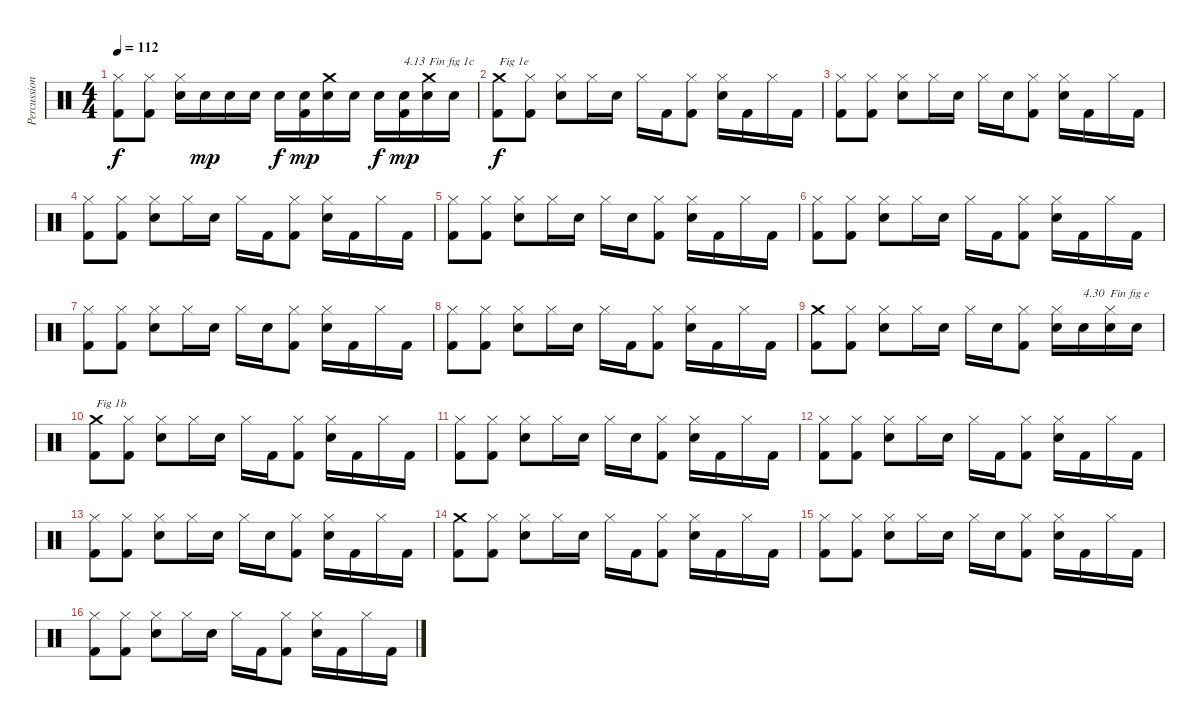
\track ("Percussions" "Percussion") {instrument percussion}
\staff {score}
\articulation defaults
\ts (4 4)
\tempo 112
\clef neutral
\ks c
("Kick (hit) 2" "Hi-Hat (closed)").8{dy f} ("Kick (hit) 2" "Hi-Hat (closed)").8 ("Snare (hit) 2" "Hi-Hat (closed)").16 "Snare (hit) 2".16{dy mp} "Snare (hit) 2".16 "Snare (hit) 2".16 "Snare (hit) 2".16{dy f} ("Kick (hit) 2" "Snare (hit) 2").16{dy mp} ("Snare (hit) 2" "Crash medium (hit)").16 "Snare (hit) 2".16 "Snare (hit) 2".16{dy f} ("Kick (hit) 2" "Snare (hit) 2").16{txt "4.13" dy mp} ("Snare (hit) 2" "Crash medium (hit)").16{txt "Fin fig 1c"} "Snare (hit) 2".16 |
("Kick (hit) 2" "Crash medium (hit)").8{txt "Fig 1e" dy f} ("Kick (hit) 2" "Hi-Hat (closed)").8 ("Snare (hit) 2" "Hi-Hat (closed)").8 "Hi-Hat (closed)".16 "Snare (hit) 2".16 "Hi-Hat (closed)".16 "Kick (hit) 2".16 ("Kick (hit) 2" "Hi-Hat (closed)").8 ("Snare (hit) 2" "Hi-Hat (closed)").16 "Kick (hit) 2".16 "Hi-Hat (closed)".16 "Kick (hit) 2".16 |
("Kick (hit) 2" "Hi-Hat (closed)").8 ("Kick (hit) 2" "Hi-Hat (closed)").8 ("Snare (hit) 2" "Hi-Hat (closed)").8 "Hi-Hat (closed)".16 "Snare (hit) 2".16 "Hi-Hat (closed)".16 "Snare (hit) 2".16 ("Kick (hit) 2" "Hi-Hat (closed)").8 ("Snare (hit) 2" "Hi-Hat (closed)").16 "Kick (hit) 2".16 "Hi-Hat (closed)".16 "Kick (hit) 2".16 |
("Kick (hit) 2" "Hi-Hat (closed)").8 ("Kick (hit) 2" "Hi-Hat (closed)").8 ("Snare (hit) 2" "Hi-Hat (closed)").8 "Hi-Hat (closed)".16 "Snare (hit) 2".16 "Hi-Hat (closed)".16 "Kick (hit) 2".16 ("Kick (hit) 2" "Hi-Hat (closed)").8 ("Snare (hit) 2" "Hi-Hat (closed)").16 "Kick (hit) 2".16 "Hi-Hat (closed)".16 "Kick (hit) 2".16 |
("Kick (hit) 2" "Hi-Hat (closed)").8 ("Kick (hit) 2" "Hi-Hat (closed)").8 ("Snare (hit) 2" "Hi-Hat (closed)").8 "Hi-Hat (closed)".16 "Snare (hit) 2".16 "Hi-Hat (closed)".16 "Snare (hit) 2".16 ("Kick (hit) 2" "Hi-Hat (closed)").8 ("Snare (hit) 2" "Hi-Hat (closed)").16 "Kick (hit) 2".16 "Hi-Hat (closed)".16 "Kick (hit) 2".16 |
("Kick (hit) 2" "Hi-Hat (closed)").8 ("Kick (hit) 2" "Hi-Hat (closed)").8 ("Snare (hit) 2" "Hi-Hat (closed)").8 "Hi-Hat (closed)".16 "Snare (hit) 2".16 "Hi-Hat (closed)".16 "Kick (hit) 2".16 ("Kick (hit) 2" "Hi-Hat (closed)").8 ("Snare (hit) 2" "Hi-Hat (closed)").16 "Kick (hit) 2".16 "Hi-Hat (closed)".16 "Kick (hit) 2".16 |
("Kick (hit) 2" "Hi-Hat (closed)").8 ("Kick (hit) 2" "Hi-Hat (closed)").8 ("Snare (hit) 2" "Hi-Hat (closed)").8 "Hi-Hat (closed)".16 "Snare (hit) 2".16 "Hi-Hat (closed)".16 "Snare (hit) 2".16 ("Kick (hit) 2" "Hi-Hat (closed)").8 ("Snare (hit) 2" "Hi-Hat (closed)").16 "Kick (hit) 2".16 "Hi-Hat (closed)".16 "Kick (hit) 2".16 |
("Kick (hit) 2" "Hi-Hat (closed)").8 ("Kick (hit) 2" "Hi-Hat (closed)").8 ("Snare (hit) 2" "Hi-Hat (closed)").8 "Hi-Hat (closed)".16 "Snare (hit) 2".16 "Hi-Hat (closed)".16 "Kick (hit) 2".16 ("Kick (hit) 2" "Hi-Hat (closed)").8 ("Snare (hit) 2" "Hi-Hat (closed)").16 "Kick (hit) 2".16 "Hi-Hat (closed)".16 "Kick (hit) 2".16 |
("Kick (hit) 2" "Crash medium (hit)").8 ("Kick (hit) 2" "Hi-Hat (closed)").8 ("Snare (hit) 2" "Hi-Hat (closed)").8 "Hi-Hat (closed)".16 "Snare (hit) 2".16 "Hi-Hat (closed)".16 "Snare (hit) 2".16 ("Kick (hit) 2" "Hi-Hat (closed)").8 ("Snare (hit) 2" "Hi-Hat (closed)").16 "Snare (hit) 2".16{txt "4.30"} ("Snare (hit) 2" "Hi-Hat (closed)").16{txt "Fin fig e"} "Snare (hit) 2".16 |
("Kick (hit) 2" "Crash medium (hit)").8{txt "Fig 1b"} ("Kick (hit) 2" "Hi-Hat (closed)").8 ("Snare (hit) 2" "Hi-Hat (closed)").8 "Hi-Hat (closed)".16 "Snare (hit) 2".16 "Hi-Hat (closed)".16 "Kick (hit) 2".16 ("Kick (hit) 2" "Hi-Hat (closed)").8 ("Snare (hit) 2" "Hi-Hat (closed)").16 "Kick (hit) 2".16 "Hi-Hat (closed)".16 "Kick (hit) 2".16 |
("Kick (hit) 2" "Hi-Hat (closed)").8 ("Kick (hit) 2" "Hi-Hat (closed)").8 ("Snare (hit) 2" "Hi-Hat (closed)").8 "Hi-Hat (closed)".16 "Snare (hit) 2".16 "Hi-Hat (closed)".16 "Snare (hit) 2".16 ("Kick (hit) 2" "Hi-Hat (closed)").8 ("Snare (hit) 2" "Hi-Hat (closed)").16 "Kick (hit) 2".16 "Hi-Hat (closed)".16 "Kick (hit) 2".16 |
("Kick (hit) 2" "Hi-Hat (closed)").8 ("Kick (hit) 2" "Hi-Hat (closed)").8 ("Snare (hit) 2" "Hi-Hat (closed)").8 "Hi-Hat (closed)".16 "Snare (hit) 2".16 "Hi-Hat (closed)".16 "Kick (hit) 2".16 ("Kick (hit) 2" "Hi-Hat (closed)").8 ("Snare (hit) 2" "Hi-Hat (closed)").16 "Kick (hit) 2".16 "Hi-Hat (closed)".16 "Kick (hit) 2".16 |
("Kick (hit) 2" "Hi-Hat (closed)").8 ("Kick (hit) 2" "Hi-Hat (closed)").8 ("Snare (hit) 2" "Hi-Hat (closed)").8 "Hi-Hat (closed)".16 "Snare (hit) 2".16 "Hi-Hat (closed)".16 "Snare (hit) 2".16 ("Kick (hit) 2" "Hi-Hat (closed)").8 ("Snare (hit) 2" "Hi-Hat (closed)").16 "Kick (hit) 2".16 "Hi-Hat (closed)".16 "Kick (hit) 2".16 |
("Kick (hit) 2" "Crash medium (hit)").8 ("Kick (hit) 2" "Hi-Hat (closed)").8 ("Snare (hit) 2" "Hi-Hat (closed)").8 "Hi-Hat (closed)".16 "Snare (hit) 2".16 "Hi-Hat (closed)".16 "Kick (hit) 2".16 ("Kick (hit) 2" "Hi-Hat (closed)").8 ("Snare (hit) 2" "Hi-Hat (closed)").16 "Kick (hit) 2".16 "Hi-Hat (closed)".16 "Kick (hit) 2".16 |
("Kick (hit) 2" "Hi-Hat (closed)").8 ("Kick (hit) 2" "Hi-Hat (closed)").8 ("Snare (hit) 2" "Hi-Hat (closed)").8 "Hi-Hat (closed)".16 "Snare (hit) 2".16 "Hi-Hat (closed)".16 "Snare (hit) 2".16 ("Kick (hit) 2" "Hi-Hat (closed)").8 ("Snare (hit) 2" "Hi-Hat (closed)").16 "Kick (hit) 2".16 "Hi-Hat (closed)".16 "Kick (hit) 2".16 |
("Kick (hit) 2" "Hi-Hat (closed)").8 ("Kick (hit) 2" "Hi-Hat (closed)").8 ("Snare (hit) 2" "Hi-Hat (closed)").8 "Hi-Hat (closed)".16 "Snare (hit) 2".16 "Hi-Hat (closed)".16 "Kick (hit) 2".16 ("Kick (hit) 2" "Hi-Hat (closed)").8 ("Snare (hit) 2" "Hi-Hat (closed)").16 "Kick (hit) 2".16 "Hi-Hat (closed)".16 "Kick (hit) 2".16
